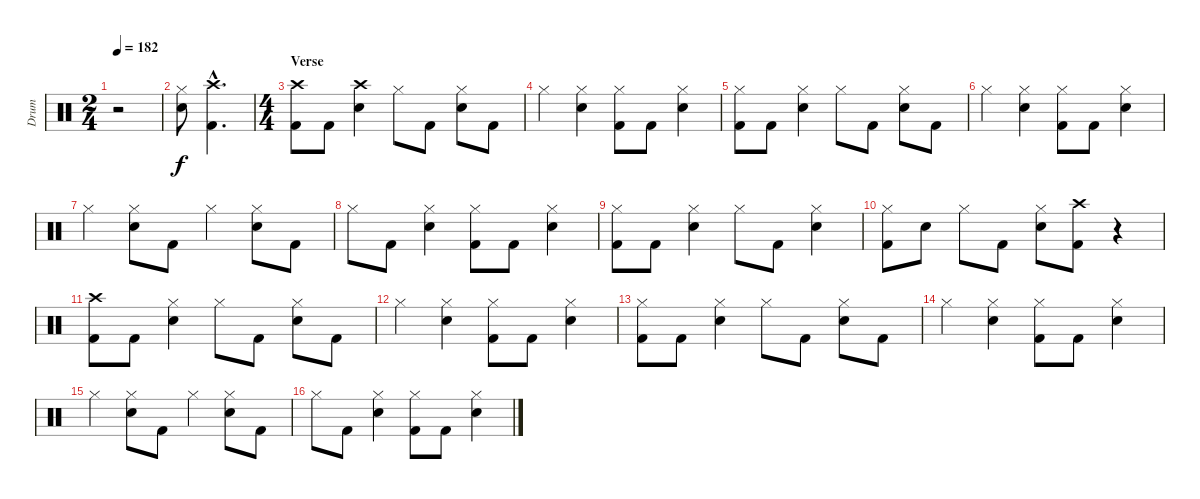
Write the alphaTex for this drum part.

\track ("Drum" "Drum") {instrument percussion}
\staff {score}
\articulation defaults
\ts (2 4)
\tempo 182
\clef neutral
\ks c
r.2{dy f} |
("Hi-Hat (closed)" "Electric Snare (hit)").8 ("Crash high (hit)"{hac} "Kick (hit) 2"{hac}).4{d} |
\ts (4 4)
\section ("" "Verse")
("Crash high (hit)" "Kick (hit) 2").8 "Kick (hit) 2".8 ("Crash high (hit)" "Electric Snare (hit)").4 "Hi-Hat (closed)".8 "Kick (hit) 2".8 ("Hi-Hat (closed)" "Electric Snare (hit)").8 "Kick (hit) 2".8 |
"Hi-Hat (closed)".4 ("Hi-Hat (closed)" "Electric Snare (hit)").4 ("Hi-Hat (closed)" "Kick (hit) 2").8 "Kick (hit) 2".8 ("Hi-Hat (closed)" "Electric Snare (hit)").4 |
("Hi-Hat (closed)" "Kick (hit) 2").8 "Kick (hit) 2".8 ("Hi-Hat (closed)" "Electric Snare (hit)").4 "Hi-Hat (closed)".8 "Kick (hit) 2".8 ("Hi-Hat (closed)" "Electric Snare (hit)").8 "Kick (hit) 2".8 |
"Hi-Hat (closed)".4 ("Hi-Hat (closed)" "Electric Snare (hit)").4 ("Hi-Hat (closed)" "Kick (hit) 2").8 "Kick (hit) 2".8 ("Hi-Hat (closed)" "Electric Snare (hit)").4 |
"Hi-Hat (closed)".4 ("Hi-Hat (closed)" "Electric Snare (hit)").8 "Kick (hit) 2".8 "Hi-Hat (closed)".4 ("Hi-Hat (closed)" "Electric Snare (hit)").8 "Kick (hit) 2".8 |
"Hi-Hat (closed)".8 "Kick (hit) 2".8 ("Hi-Hat (closed)" "Electric Snare (hit)").4 ("Hi-Hat (closed)" "Kick (hit) 2").8 "Kick (hit) 2".8 ("Hi-Hat (closed)" "Electric Snare (hit)").4 |
("Hi-Hat (closed)" "Kick (hit) 2").8 "Kick (hit) 2".8 ("Hi-Hat (closed)" "Electric Snare (hit)").4 "Hi-Hat (closed)".8 "Kick (hit) 2".8 ("Hi-Hat (closed)" "Electric Snare (hit)").4 |
("Hi-Hat (closed)" "Kick (hit) 2").8 "Electric Snare (hit)".8 "Hi-Hat (closed)".8 "Kick (hit) 2".8 ("Hi-Hat (closed)" "Electric Snare (hit)").8 ("Crash high (hit)" "Kick (hit) 2").8 r.4 |
("Crash high (hit)" "Kick (hit) 2").8 "Kick (hit) 2".8 ("Hi-Hat (closed)" "Electric Snare (hit)").4 "Hi-Hat (closed)".8 "Kick (hit) 2".8 ("Hi-Hat (closed)" "Electric Snare (hit)").8 "Kick (hit) 2".8 |
"Hi-Hat (closed)".4 ("Hi-Hat (closed)" "Electric Snare (hit)").4 ("Hi-Hat (closed)" "Kick (hit) 2").8 "Kick (hit) 2".8 ("Hi-Hat (closed)" "Electric Snare (hit)").4 |
("Hi-Hat (closed)" "Kick (hit) 2").8 "Kick (hit) 2".8 ("Hi-Hat (closed)" "Electric Snare (hit)").4 "Hi-Hat (closed)".8 "Kick (hit) 2".8 ("Hi-Hat (closed)" "Electric Snare (hit)").8 "Kick (hit) 2".8 |
"Hi-Hat (closed)".4 ("Hi-Hat (closed)" "Electric Snare (hit)").4 ("Hi-Hat (closed)" "Kick (hit) 2").8 "Kick (hit) 2".8 ("Hi-Hat (closed)" "Electric Snare (hit)").4 |
"Hi-Hat (closed)".4 ("Hi-Hat (closed)" "Electric Snare (hit)").8 "Kick (hit) 2".8 "Hi-Hat (closed)".4 ("Hi-Hat (closed)" "Electric Snare (hit)").8 "Kick (hit) 2".8 |
"Hi-Hat (closed)".8 "Kick (hit) 2".8 ("Hi-Hat (closed)" "Electric Snare (hit)").4 ("Hi-Hat (closed)" "Kick (hit) 2").8 "Kick (hit) 2".8 ("Hi-Hat (closed)" "Electric Snare (hit)").4
